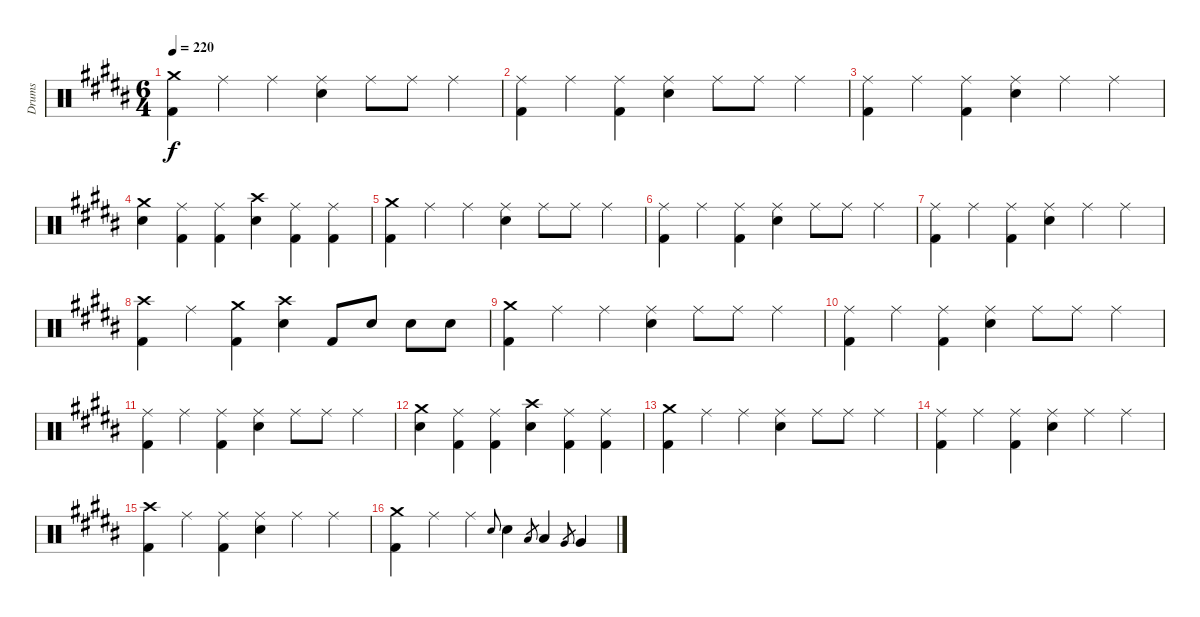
\track ("Drums" "Drums") {instrument percussion}
\staff {score}
\articulation defaults
\ts (6 4)
\tempo 220
\clef neutral
\ks g#minor
("Crash medium (hit)" "Kick (hit) 2").4{dy f} "Ride (middle)".4 "Ride (middle)".4 ("Ride (middle)" "Electric Snare (hit)").4 "Ride (middle)".8 "Ride (middle)".8 "Ride (middle)".4 |
("Ride (middle)" "Kick (hit) 2").4 "Ride (middle)".4 ("Ride (middle)" "Kick (hit) 2").4 ("Ride (middle)" "Electric Snare (hit)").4 "Ride (middle)".8 "Ride (middle)".8 "Ride (middle)".4 |
("Ride (middle)" "Kick (hit) 2").4 "Ride (middle)".4 ("Ride (middle)" "Kick (hit) 2").4 ("Ride (middle)" "Electric Snare (hit)").4 "Ride (middle)".4 "Ride (middle)".4 |
("Crash medium (hit)" "Electric Snare (hit)").4 ("Ride (middle)" "Kick (hit) 2").4 ("Ride (middle)" "Kick (hit) 2").4 ("Crash high (hit)" "Electric Snare (hit)").4 ("Ride (middle)" "Kick (hit) 2").4 ("Ride (middle)" "Kick (hit) 2").4 |
("Crash medium (hit)" "Kick (hit) 2").4 "Ride (middle)".4 "Ride (middle)".4 ("Ride (middle)" "Electric Snare (hit)").4 "Ride (middle)".8 "Ride (middle)".8 "Ride (middle)".4 |
("Ride (middle)" "Kick (hit) 2").4 "Ride (middle)".4 ("Ride (middle)" "Kick (hit) 2").4 ("Ride (middle)" "Electric Snare (hit)").4 "Ride (middle)".8 "Ride (middle)".8 "Ride (middle)".4 |
("Ride (middle)" "Kick (hit) 2").4 "Ride (middle)".4 ("Ride (middle)" "Kick (hit) 2").4 ("Ride (middle)" "Electric Snare (hit)").4 "Ride (middle)".4 "Ride (middle)".4 |
("Crash high (hit)" "Kick (hit) 2").4 "Ride (middle)".4 ("Crash medium (hit)" "Kick (hit) 2").4 ("Crash high (hit)" "Electric Snare (hit)").4 "Kick (hit) 2".8 "Electric Snare (hit)".8 "Electric Snare (hit)".8 "Electric Snare (hit)".8 |
("Crash medium (hit)" "Kick (hit) 2").4 "Ride (middle)".4 "Ride (middle)".4 ("Ride (middle)" "Electric Snare (hit)").4 "Ride (middle)".8 "Ride (middle)".8 "Ride (middle)".4 |
("Ride (middle)" "Kick (hit) 2").4 "Ride (middle)".4 ("Ride (middle)" "Kick (hit) 2").4 ("Ride (middle)" "Electric Snare (hit)").4 "Ride (middle)".8 "Ride (middle)".8 "Ride (middle)".4 |
("Ride (middle)" "Kick (hit) 2").4 "Ride (middle)".4 ("Ride (middle)" "Kick (hit) 2").4 ("Ride (middle)" "Electric Snare (hit)").4 "Ride (middle)".8 "Ride (middle)".8 "Ride (middle)".4 |
("Crash medium (hit)" "Electric Snare (hit)").4 ("Ride (middle)" "Kick (hit) 2").4 ("Ride (middle)" "Kick (hit) 2").4 ("Crash high (hit)" "Electric Snare (hit)").4 ("Ride (middle)" "Kick (hit) 2").4 ("Ride (middle)" "Kick (hit) 2").4 |
("Crash medium (hit)" "Kick (hit) 2").4 "Ride (middle)".4 "Ride (middle)".4 ("Ride (middle)" "Electric Snare (hit)").4 "Ride (middle)".8 "Ride (middle)".8 "Ride (middle)".4 |
("Ride (middle)" "Kick (hit) 2").4 "Ride (middle)".4 ("Ride (middle)" "Kick (hit) 2").4 ("Ride (middle)" "Electric Snare (hit)").4 "Ride (middle)".4 "Ride (middle)".4 |
("Crash high (hit)" "Kick (hit) 2").4 "Ride (middle)".4 ("Ride (middle)" "Kick (hit) 2").4 ("Ride (middle)" "Electric Snare (hit)").4 "Ride (middle)".4 "Ride (middle)".4 |
("Crash medium (hit)" "Kick (hit) 2").4 "Ride (middle)".4 "Ride (middle)".4 "Electric Snare (hit)".8{gr onbeat} "Electric Snare (hit)".4 "Low Tom (hit)".8{gr} "Low Tom (hit)".4 "Very Low Tom (hit)".8{gr} "Very Low Tom (hit)".4
